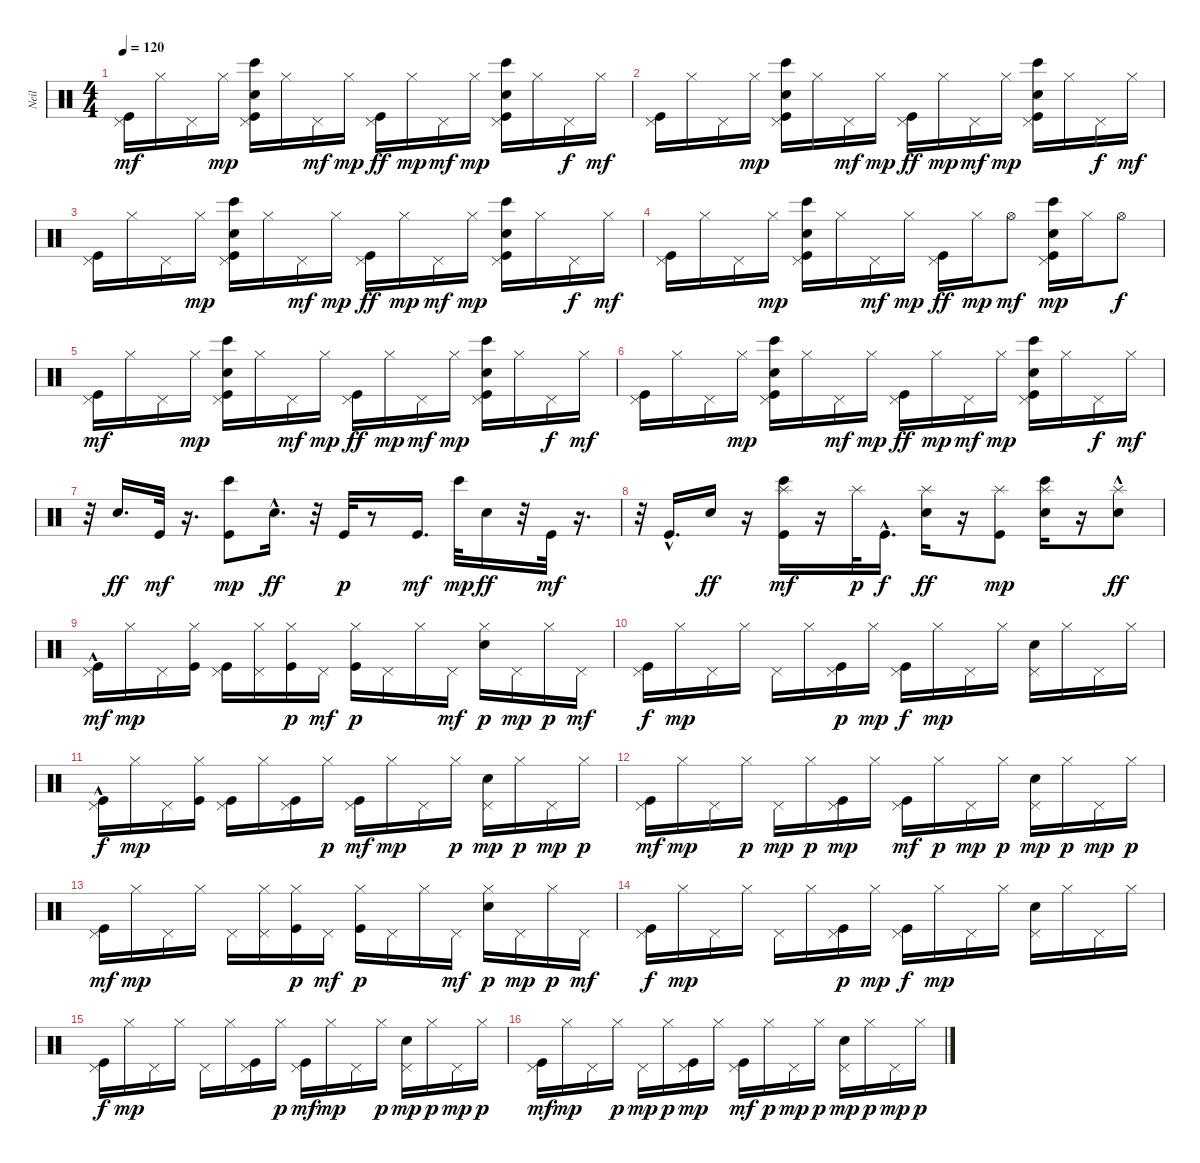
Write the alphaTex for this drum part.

\track ("Neil" "Neil") {instrument percussion}
\staff {score}
\articulation defaults
\ts (4 4)
\tempo 120
\clef neutral
\ks c
("Pedal Hi-Hat (hit)" "Kick (hit)").16{dy mf} "Hi-Hat (closed)".16 "Pedal Hi-Hat (hit)".16 "Hi-Hat (closed)".16{dy mp} ("Electric Snare (hit)" "Pedal Hi-Hat (hit)" "Kick (hit)" "Bongo High (hit)").16 "Hi-Hat (closed)".16 "Pedal Hi-Hat (hit)".16{dy mf} "Hi-Hat (closed)".16{dy mp} ("Pedal Hi-Hat (hit)" "Kick (hit)").16{dy ff} "Hi-Hat (closed)".16{dy mp} "Pedal Hi-Hat (hit)".16{dy mf} "Hi-Hat (closed)".16{dy mp} ("Electric Snare (hit)" "Pedal Hi-Hat (hit)" "Kick (hit)" "Bongo High (hit)").16 "Hi-Hat (closed)".16 "Pedal Hi-Hat (hit)".16{dy f} "Hi-Hat (closed)".16{dy mf} |
("Pedal Hi-Hat (hit)" "Kick (hit)").16 "Hi-Hat (closed)".16 "Pedal Hi-Hat (hit)".16 "Hi-Hat (closed)".16{dy mp} ("Electric Snare (hit)" "Pedal Hi-Hat (hit)" "Kick (hit)" "Bongo High (hit)").16 "Hi-Hat (closed)".16 "Pedal Hi-Hat (hit)".16{dy mf} "Hi-Hat (closed)".16{dy mp} ("Pedal Hi-Hat (hit)" "Kick (hit)").16{dy ff} "Hi-Hat (closed)".16{dy mp} "Pedal Hi-Hat (hit)".16{dy mf} "Hi-Hat (closed)".16{dy mp} ("Electric Snare (hit)" "Pedal Hi-Hat (hit)" "Kick (hit)" "Bongo High (hit)").16 "Hi-Hat (closed)".16 "Pedal Hi-Hat (hit)".16{dy f} "Hi-Hat (closed)".16{dy mf} |
("Pedal Hi-Hat (hit)" "Kick (hit)").16 "Hi-Hat (closed)".16 "Pedal Hi-Hat (hit)".16 "Hi-Hat (closed)".16{dy mp} ("Electric Snare (hit)" "Pedal Hi-Hat (hit)" "Kick (hit)" "Bongo High (hit)").16 "Hi-Hat (closed)".16 "Pedal Hi-Hat (hit)".16{dy mf} "Hi-Hat (closed)".16{dy mp} ("Pedal Hi-Hat (hit)" "Kick (hit)").16{dy ff} "Hi-Hat (closed)".16{dy mp} "Pedal Hi-Hat (hit)".16{dy mf} "Hi-Hat (closed)".16{dy mp} ("Electric Snare (hit)" "Pedal Hi-Hat (hit)" "Kick (hit)" "Bongo High (hit)").16 "Hi-Hat (closed)".16 "Pedal Hi-Hat (hit)".16{dy f} "Hi-Hat (closed)".16{dy mf} |
("Pedal Hi-Hat (hit)" "Kick (hit)").16 "Hi-Hat (closed)".16 "Pedal Hi-Hat (hit)".16 "Hi-Hat (closed)".16{dy mp} ("Electric Snare (hit)" "Pedal Hi-Hat (hit)" "Kick (hit)" "Bongo High (hit)").16 "Hi-Hat (closed)".16 "Pedal Hi-Hat (hit)".16{dy mf} "Hi-Hat (closed)".16{dy mp} ("Pedal Hi-Hat (hit)" "Kick (hit)").16{dy ff} "Hi-Hat (closed)".16{dy mp} "Hi-Hat (open)".8{dy mf} ("Electric Snare (hit)" "Pedal Hi-Hat (hit)" "Kick (hit)" "Bongo High (hit)").16{dy mp} "Hi-Hat (closed)".16 "Hi-Hat (open)".8{dy f} |
("Pedal Hi-Hat (hit)" "Kick (hit)").16{dy mf} "Hi-Hat (closed)".16 "Pedal Hi-Hat (hit)".16 "Hi-Hat (closed)".16{dy mp} ("Electric Snare (hit)" "Pedal Hi-Hat (hit)" "Kick (hit)" "Bongo High (hit)").16 "Hi-Hat (closed)".16 "Pedal Hi-Hat (hit)".16{dy mf} "Hi-Hat (closed)".16{dy mp} ("Pedal Hi-Hat (hit)" "Kick (hit)").16{dy ff} "Hi-Hat (closed)".16{dy mp} "Pedal Hi-Hat (hit)".16{dy mf volume 10} "Hi-Hat (closed)".16{dy mp} ("Electric Snare (hit)" "Pedal Hi-Hat (hit)" "Kick (hit)" "Bongo High (hit)").16 "Hi-Hat (closed)".16 "Pedal Hi-Hat (hit)".16{dy f} "Hi-Hat (closed)".16{dy mf volume 10} |
("Pedal Hi-Hat (hit)" "Kick (hit)").16 "Hi-Hat (closed)".16 "Pedal Hi-Hat (hit)".16 "Hi-Hat (closed)".16{dy mp volume 10} ("Electric Snare (hit)" "Pedal Hi-Hat (hit)" "Kick (hit)" "Bongo High (hit)").16 "Hi-Hat (closed)".16 "Pedal Hi-Hat (hit)".16{dy mf} "Hi-Hat (closed)".16{dy mp} ("Pedal Hi-Hat (hit)" "Kick (hit)").16{dy ff} "Hi-Hat (closed)".16{dy mp} "Pedal Hi-Hat (hit)".16{dy mf} "Hi-Hat (closed)".16{dy mp} ("Electric Snare (hit)" "Pedal Hi-Hat (hit)" "Kick (hit)" "Bongo High (hit)").16 "Hi-Hat (closed)".16 "Pedal Hi-Hat (hit)".16{dy f} "Hi-Hat (closed)".16{dy mf} |
r.32 "Electric Snare (hit)".16{d dy ff} "Kick (hit)".32{dy mf} r.16{d} ("Kick (hit)" "Bongo High (hit)").8{dy mp} "Electric Snare (hit)"{hac}.16{d dy ff} r.32 "Kick (hit)".32{dy p} r.8 "Kick (hit)".16{d dy mf} "Bongo High (hit)".32{dy mp} "Electric Snare (hit)".16{dy ff} r.32 "Kick (hit)".32{dy mf} r.16{d} |
r.32 "Kick (hit)"{hac}.16{d} "Electric Snare (hit)".16{dy ff} r.16 ("Splash (hit)" "Bongo High (hit)" "Kick (hit)").16{dy mf} r.16 "Splash (hit)".32{dy p} "Kick (hit)"{hac}.16{d dy f} ("Splash (hit)" "Electric Snare (hit)").16{dy ff volume 10} r.16 ("Kick (hit)" "Splash (hit)").8{dy mp} ("Splash (hit)" "Electric Snare (hit)" "Bongo High (hit)").16 r.16 ("Splash (hit)" "Electric Snare (hit)"{hac}).8{dy ff} |
("Pedal Hi-Hat (hit)" "Kick (hit)"{hac}).16{dy mf} "Hi-Hat (closed)".16{dy mp volume 10} "Pedal Hi-Hat (hit)".16{volume 11} ("Kick (hit)" "Hi-Hat (closed)").16{volume 11} ("Kick (hit)" "Pedal Hi-Hat (hit)").16{volume 11} ("Hi-Hat (closed)" "Pedal Hi-Hat (hit)").16{volume 12} ("Kick (hit)" "Hi-Hat (closed)").16{dy p} "Pedal Hi-Hat (hit)".16{dy mf} ("Kick (hit)" "Hi-Hat (closed)").16{dy p} "Pedal Hi-Hat (hit)".16 "Hi-Hat (closed)".16 "Pedal Hi-Hat (hit)".16{dy mf} ("Electric Snare (hit)" "Hi-Hat (closed)").16{dy p} "Pedal Hi-Hat (hit)".16{dy mp} "Hi-Hat (closed)".16{dy p} "Pedal Hi-Hat (hit)".16{dy mf} |
("Kick (hit)" "Pedal Hi-Hat (hit)").16{dy f} "Hi-Hat (closed)".16{dy mp} "Pedal Hi-Hat (hit)".16 "Hi-Hat (closed)".16 "Pedal Hi-Hat (hit)".16 "Hi-Hat (closed)".16 ("Kick (hit)" "Pedal Hi-Hat (hit)").16{dy p volume 12} "Hi-Hat (closed)".16{dy mp} ("Kick (hit)" "Pedal Hi-Hat (hit)").16{dy f} "Hi-Hat (closed)".16{dy mp} "Pedal Hi-Hat (hit)".16{volume 12} "Hi-Hat (closed)".16 ("Electric Snare (hit)" "Pedal Hi-Hat (hit)").16 "Hi-Hat (closed)".16 "Pedal Hi-Hat (hit)".16 "Hi-Hat (closed)".16 |
("Pedal Hi-Hat (hit)" "Kick (hit)"{hac}).16{dy f} "Hi-Hat (closed)".16{dy mp} "Pedal Hi-Hat (hit)".16 ("Kick (hit)" "Hi-Hat (closed)").16 ("Kick (hit)" "Pedal Hi-Hat (hit)").16{volume 12} "Hi-Hat (closed)".16 ("Kick (hit)" "Pedal Hi-Hat (hit)").16 "Hi-Hat (closed)".16{dy p} ("Kick (hit)" "Pedal Hi-Hat (hit)").16{dy mf} "Hi-Hat (closed)".16{dy mp} "Pedal Hi-Hat (hit)".16 "Hi-Hat (closed)".16{dy p} ("Electric Snare (hit)" "Pedal Hi-Hat (hit)").16{dy mp} "Hi-Hat (closed)".16{dy p} "Pedal Hi-Hat (hit)".16{dy mp} "Hi-Hat (closed)".16{dy p} |
("Kick (hit)" "Pedal Hi-Hat (hit)").16{dy mf} "Hi-Hat (closed)".16{dy mp} "Pedal Hi-Hat (hit)".16 "Hi-Hat (closed)".16{dy p} "Pedal Hi-Hat (hit)".16{dy mp} "Hi-Hat (closed)".16{dy p} ("Kick (hit)" "Pedal Hi-Hat (hit)").16{dy mp} "Hi-Hat (closed)".16 ("Kick (hit)" "Pedal Hi-Hat (hit)").16{dy mf} "Hi-Hat (closed)".16{dy p} "Pedal Hi-Hat (hit)".16{dy mp} "Hi-Hat (closed)".16{dy p} ("Electric Snare (hit)" "Pedal Hi-Hat (hit)").16{dy mp} "Hi-Hat (closed)".16{dy p} "Pedal Hi-Hat (hit)".16{dy mp} "Hi-Hat (closed)".16{dy p} |
("Kick (hit)" "Pedal Hi-Hat (hit)").16{dy mf} "Hi-Hat (closed)".16{dy mp} "Pedal Hi-Hat (hit)".16 "Hi-Hat (closed)".16 "Pedal Hi-Hat (hit)".16{volume 12} ("Hi-Hat (closed)" "Pedal Hi-Hat (hit)").16 ("Kick (hit)" "Hi-Hat (closed)").16{dy p volume 12} "Pedal Hi-Hat (hit)".16{dy mf} ("Kick (hit)" "Hi-Hat (closed)").16{dy p} "Pedal Hi-Hat (hit)".16{volume 12} "Hi-Hat (closed)".16{volume 12} "Pedal Hi-Hat (hit)".16{dy mf} ("Electric Snare (hit)" "Hi-Hat (closed)").16{dy p} "Pedal Hi-Hat (hit)".16{dy mp} "Hi-Hat (closed)".16{dy p} "Pedal Hi-Hat (hit)".16{dy mf} |
("Kick (hit)" "Pedal Hi-Hat (hit)").16{dy f} "Hi-Hat (closed)".16{dy mp} "Pedal Hi-Hat (hit)".16 "Hi-Hat (closed)".16 "Pedal Hi-Hat (hit)".16 "Hi-Hat (closed)".16 ("Kick (hit)" "Pedal Hi-Hat (hit)").16{dy p} "Hi-Hat (closed)".16{dy mp} ("Kick (hit)" "Pedal Hi-Hat (hit)").16{dy f} "Hi-Hat (closed)".16{dy mp} "Pedal Hi-Hat (hit)".16 "Hi-Hat (closed)".16 ("Electric Snare (hit)" "Pedal Hi-Hat (hit)").16 "Hi-Hat (closed)".16 "Pedal Hi-Hat (hit)".16 "Hi-Hat (closed)".16 |
("Kick (hit)" "Pedal Hi-Hat (hit)").16{dy f} "Hi-Hat (closed)".16{dy mp} "Pedal Hi-Hat (hit)".16 "Hi-Hat (closed)".16 "Pedal Hi-Hat (hit)".16 "Hi-Hat (closed)".16 ("Kick (hit)" "Pedal Hi-Hat (hit)").16 "Hi-Hat (closed)".16{dy p} ("Kick (hit)" "Pedal Hi-Hat (hit)").16{dy mf} "Hi-Hat (closed)".16{dy mp} "Pedal Hi-Hat (hit)".16 "Hi-Hat (closed)".16{dy p} ("Electric Snare (hit)" "Pedal Hi-Hat (hit)").16{dy mp} "Hi-Hat (closed)".16{dy p} "Pedal Hi-Hat (hit)".16{dy mp} "Hi-Hat (closed)".16{dy p} |
("Kick (hit)" "Pedal Hi-Hat (hit)").16{dy mf} "Hi-Hat (closed)".16{dy mp} "Pedal Hi-Hat (hit)".16 "Hi-Hat (closed)".16{dy p} "Pedal Hi-Hat (hit)".16{dy mp} "Hi-Hat (closed)".16{dy p} ("Kick (hit)" "Pedal Hi-Hat (hit)").16{dy mp} "Hi-Hat (closed)".16 ("Kick (hit)" "Pedal Hi-Hat (hit)").16{dy mf} "Hi-Hat (closed)".16{dy p} "Pedal Hi-Hat (hit)".16{dy mp} "Hi-Hat (closed)".16{dy p} ("Electric Snare (hit)" "Pedal Hi-Hat (hit)").16{dy mp volume 12} "Hi-Hat (closed)".16{dy p} "Pedal Hi-Hat (hit)".16{dy mp volume 12} "Hi-Hat (closed)".16{dy p volume 12}
